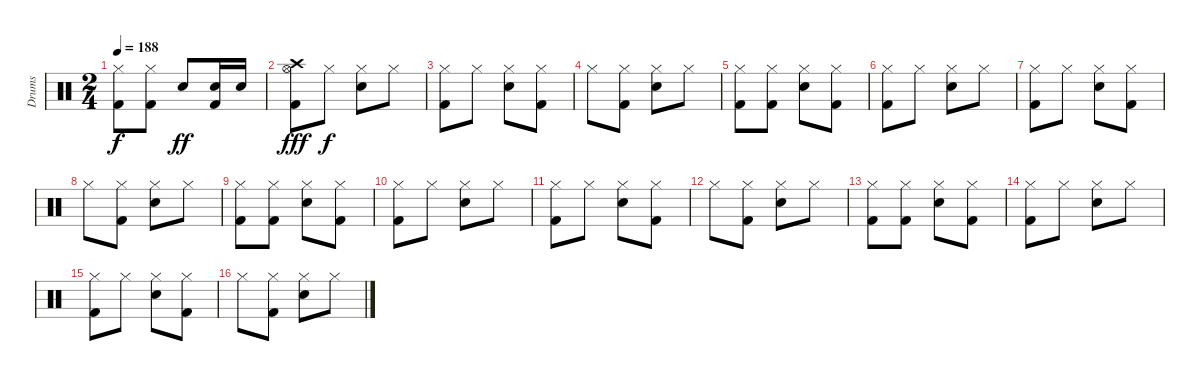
\track ("Drums" "Drums") {instrument percussion}
\staff {score}
\articulation defaults
\ts (2 4)
\tempo 188
\clef neutral
\ks c
("Hi-Hat (closed)" "Kick (hit) 2").8{dy f} ("Hi-Hat (closed)" "Kick (hit) 2").8 "Snare (hit) 2".8{dy ff} ("Snare (hit) 2" "Kick (hit) 2").16 "Snare (hit) 2".16 |
("Crash high (hit)" "Hi-Hat (open)" "Kick (hit) 2").8{dy fff} "Hi-Hat (closed)".8{dy f} ("Hi-Hat (closed)" "Snare (hit) 2").8 "Hi-Hat (closed)".8 |
("Hi-Hat (closed)" "Kick (hit) 2").8 "Hi-Hat (closed)".8 ("Hi-Hat (closed)" "Snare (hit) 2").8 ("Hi-Hat (closed)" "Kick (hit) 2").8 |
"Hi-Hat (closed)".8 ("Hi-Hat (closed)" "Kick (hit) 2").8 ("Hi-Hat (closed)" "Snare (hit) 2").8 "Hi-Hat (closed)".8 |
("Hi-Hat (closed)" "Kick (hit) 2").8 ("Hi-Hat (closed)" "Kick (hit) 2").8 ("Hi-Hat (closed)" "Snare (hit) 2").8 ("Hi-Hat (closed)" "Kick (hit) 2").8 |
("Hi-Hat (closed)" "Kick (hit) 2").8 "Hi-Hat (closed)".8 ("Hi-Hat (closed)" "Snare (hit) 2").8 "Hi-Hat (closed)".8 |
("Hi-Hat (closed)" "Kick (hit) 2").8 "Hi-Hat (closed)".8 ("Hi-Hat (closed)" "Snare (hit) 2").8 ("Hi-Hat (closed)" "Kick (hit) 2").8 |
"Hi-Hat (closed)".8 ("Hi-Hat (closed)" "Kick (hit) 2").8 ("Hi-Hat (closed)" "Snare (hit) 2").8 "Hi-Hat (closed)".8 |
("Hi-Hat (closed)" "Kick (hit) 2").8 ("Hi-Hat (closed)" "Kick (hit) 2").8 ("Hi-Hat (closed)" "Snare (hit) 2").8 ("Hi-Hat (closed)" "Kick (hit) 2").8 |
("Hi-Hat (closed)" "Kick (hit) 2").8 "Hi-Hat (closed)".8 ("Hi-Hat (closed)" "Snare (hit) 2").8 "Hi-Hat (closed)".8 |
("Hi-Hat (closed)" "Kick (hit) 2").8 "Hi-Hat (closed)".8 ("Hi-Hat (closed)" "Snare (hit) 2").8 ("Hi-Hat (closed)" "Kick (hit) 2").8 |
"Hi-Hat (closed)".8 ("Hi-Hat (closed)" "Kick (hit) 2").8 ("Hi-Hat (closed)" "Snare (hit) 2").8 "Hi-Hat (closed)".8 |
("Hi-Hat (closed)" "Kick (hit) 2").8 ("Hi-Hat (closed)" "Kick (hit) 2").8 ("Hi-Hat (closed)" "Snare (hit) 2").8 ("Hi-Hat (closed)" "Kick (hit) 2").8 |
("Hi-Hat (closed)" "Kick (hit) 2").8 "Hi-Hat (closed)".8 ("Hi-Hat (closed)" "Snare (hit) 2").8 "Hi-Hat (closed)".8 |
("Hi-Hat (closed)" "Kick (hit) 2").8 "Hi-Hat (closed)".8 ("Hi-Hat (closed)" "Snare (hit) 2").8 ("Hi-Hat (closed)" "Kick (hit) 2").8 |
"Hi-Hat (closed)".8 ("Hi-Hat (closed)" "Kick (hit) 2").8 ("Hi-Hat (closed)" "Snare (hit) 2").8 "Hi-Hat (closed)".8
